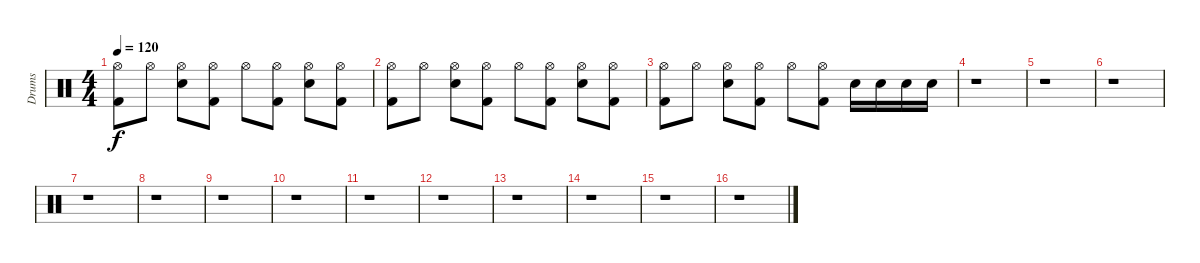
\track ("Drums" "Drums") {instrument percussion}
\staff {score}
\articulation defaults
\ts (4 4)
\tempo 120
\clef neutral
\ks c
("Hi-Hat (open)" "Kick (hit) 2").8{dy f} "Hi-Hat (open)".8 ("Hi-Hat (open)" "Electric Snare (hit)").8 ("Hi-Hat (open)" "Kick (hit) 2").8 "Hi-Hat (open)".8 ("Hi-Hat (open)" "Kick (hit) 2").8 ("Hi-Hat (open)" "Electric Snare (hit)").8 ("Hi-Hat (open)" "Kick (hit) 2").8 |
("Hi-Hat (open)" "Kick (hit) 2").8 "Hi-Hat (open)".8 ("Hi-Hat (open)" "Electric Snare (hit)").8 ("Hi-Hat (open)" "Kick (hit) 2").8 "Hi-Hat (open)".8 ("Hi-Hat (open)" "Kick (hit) 2").8 ("Hi-Hat (open)" "Electric Snare (hit)").8 ("Hi-Hat (open)" "Kick (hit) 2").8 |
("Hi-Hat (open)" "Kick (hit) 2").8 "Hi-Hat (open)".8 ("Hi-Hat (open)" "Electric Snare (hit)").8 ("Hi-Hat (open)" "Kick (hit) 2").8 "Hi-Hat (open)".8 ("Hi-Hat (open)" "Kick (hit) 2").8 "Electric Snare (hit)".16 "Electric Snare (hit)".16 "Electric Snare (hit)".16 "Electric Snare (hit)".16 |
r.1 |
r.1 |
r.1 |
r.1 |
r.1 |
r.1 |
r.1 |
r.1 |
r.1 |
r.1 |
r.1 |
r.1 |
r.1
